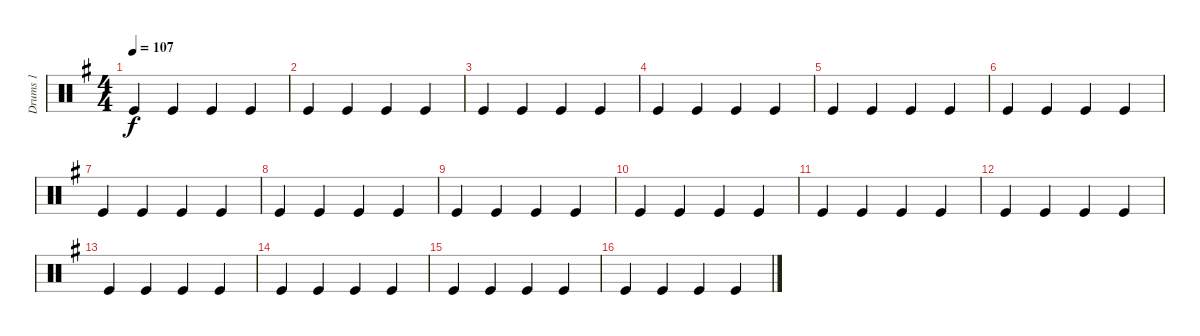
\track ("Drums 1" "Drums 1") {instrument percussion}
\staff {score}
\articulation defaults
\ts (4 4)
\tempo 107
\clef neutral
\ks g "Kick (hit)".4{dy f} "Kick (hit)".4 "Kick (hit)".4 "Kick (hit)".4
|
"Kick (hit)".4 "Kick (hit)".4 "Kick (hit)".4 "Kick (hit)".4 |
"Kick (hit)".4 "Kick (hit)".4 "Kick (hit)".4 "Kick (hit)".4 |
"Kick (hit)".4 "Kick (hit)".4 "Kick (hit)".4 "Kick (hit)".4 |
"Kick (hit)".4 "Kick (hit)".4 "Kick (hit)".4 "Kick (hit)".4 |
"Kick (hit)".4 "Kick (hit)".4 "Kick (hit)".4 "Kick (hit)".4 |
"Kick (hit)".4 "Kick (hit)".4 "Kick (hit)".4 "Kick (hit)".4 |
"Kick (hit)".4 "Kick (hit)".4 "Kick (hit)".4 "Kick (hit)".4 |
"Kick (hit)".4 "Kick (hit)".4 "Kick (hit)".4 "Kick (hit)".4 |
"Kick (hit)".4 "Kick (hit)".4 "Kick (hit)".4 "Kick (hit)".4 |
"Kick (hit)".4 "Kick (hit)".4 "Kick (hit)".4 "Kick (hit)".4 |
"Kick (hit)".4 "Kick (hit)".4 "Kick (hit)".4 "Kick (hit)".4 |
"Kick (hit)".4 "Kick (hit)".4 "Kick (hit)".4 "Kick (hit)".4 |
"Kick (hit)".4 "Kick (hit)".4 "Kick (hit)".4 "Kick (hit)".4 |
"Kick (hit)".4 "Kick (hit)".4 "Kick (hit)".4 "Kick (hit)".4 |
"Kick (hit)".4 "Kick (hit)".4 "Kick (hit)".4 "Kick (hit)".4
